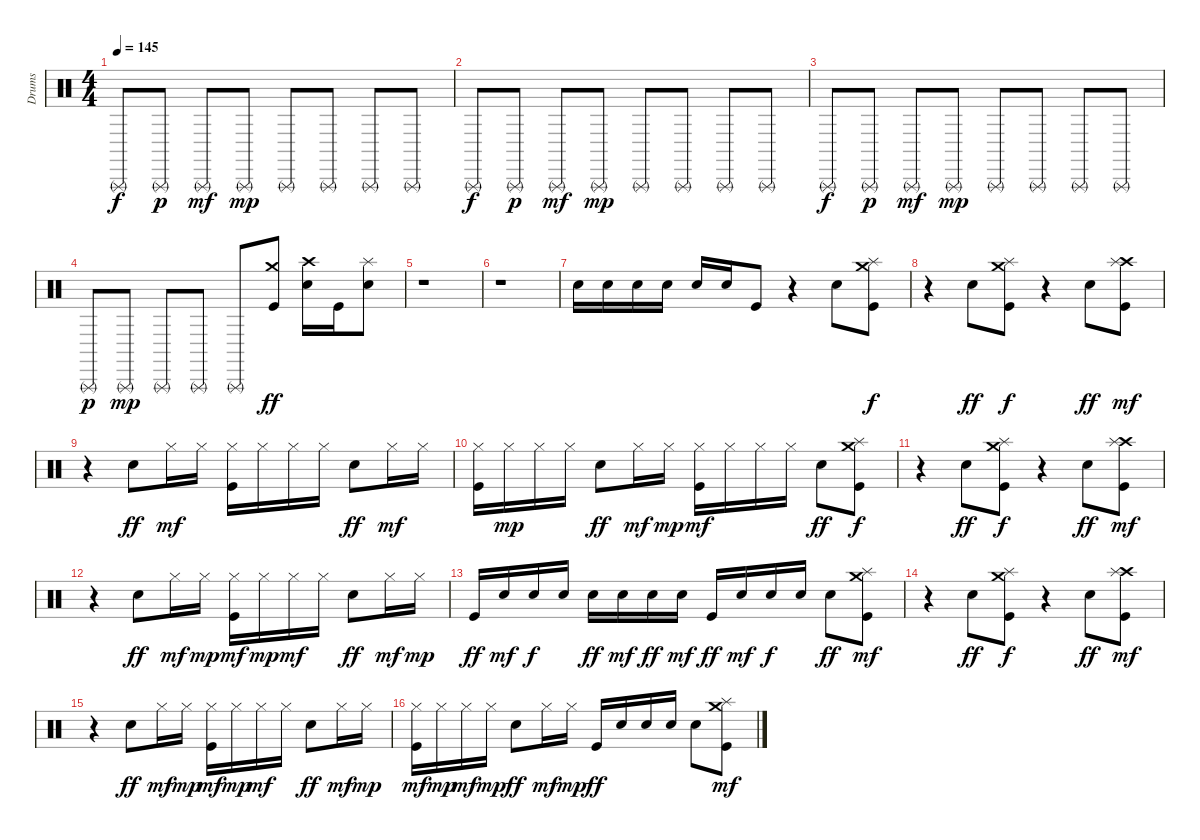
\track ("Drums" "Drums") {instrument percussion}
\staff {score}
\articulation defaults
\ts (4 4)
\tempo 145
\clef neutral
\ks c "Triangle (rnute)".8{dy f} "Triangle (rnute)".8{dy p} "Triangle (rnute)".8{dy mf} "Triangle (rnute)".8{dy mp} "Triangle (rnute)".8 "Triangle (rnute)".8 "Triangle (rnute)".8 "Triangle (rnute)".8
|
"Triangle (rnute)".8{dy f} "Triangle (rnute)".8{dy p} "Triangle (rnute)".8{dy mf} "Triangle (rnute)".8{dy mp} "Triangle (rnute)".8 "Triangle (rnute)".8 "Triangle (rnute)".8 "Triangle (rnute)".8 |
"Triangle (rnute)".8{dy f} "Triangle (rnute)".8{dy p} "Triangle (rnute)".8{dy mf} "Triangle (rnute)".8{dy mp} "Triangle (rnute)".8 "Triangle (rnute)".8 "Triangle (rnute)".8 "Triangle (rnute)".8 |
"Triangle (rnute)".8{dy p} "Triangle (rnute)".8{dy mp} "Triangle (rnute)".8 "Triangle (rnute)".8 "Triangle (rnute)".8 ("Kick (hit)" "Crash medium (hit)").8{dy ff} ("Snare (hit) 2" "Crash high (hit)").16 "Kick (hit)".16 ("Snare (hit) 2" "Splash (hit)").8 |
r.1 |
r.1 |
"Snare (hit) 2".16 "Snare (hit) 2".16 "Snare (hit) 2".16 "Snare (hit) 2".16 "Snare (hit) 2".16 "Snare (hit) 2".16 "Kick (hit)".8 r.4 "Snare (hit) 2".8 ("Kick (hit)" "Splash (hit)" "Crash medium (hit)").8{dy f} |
r.4 "Snare (hit) 2".8{dy ff} ("Kick (hit)" "Splash (hit)" "Crash medium (hit)").8{dy f} r.4 "Snare (hit) 2".8{dy ff} ("Kick (hit)" "Crash high (hit)" "Splash (hit)").8{dy mf} |
r.4 "Snare (hit) 2".8{dy ff} "Hi-Hat (closed)".16{dy mf} "Hi-Hat (closed)".16 ("Kick (hit)" "Hi-Hat (closed)").16 "Hi-Hat (closed)".16 "Hi-Hat (closed)".16 "Hi-Hat (closed)".16 "Snare (hit) 2".8{dy ff} "Hi-Hat (closed)".16{dy mf} "Hi-Hat (closed)".16 |
("Kick (hit)" "Hi-Hat (closed)").16 "Hi-Hat (closed)".16{dy mp} "Hi-Hat (closed)".16 "Hi-Hat (closed)".16 "Snare (hit) 2".8{dy ff} "Hi-Hat (closed)".16{dy mf} "Hi-Hat (closed)".16{dy mp} ("Kick (hit)" "Hi-Hat (closed)").16{dy mf} "Hi-Hat (closed)".16 "Hi-Hat (closed)".16 "Hi-Hat (closed)".16 "Snare (hit) 2".8{dy ff} ("Kick (hit)" "Splash (hit)" "Crash medium (hit)").8{dy f} |
r.4 "Snare (hit) 2".8{dy ff} ("Kick (hit)" "Splash (hit)" "Crash medium (hit)").8{dy f} r.4 "Snare (hit) 2".8{dy ff} ("Kick (hit)" "Crash high (hit)" "Splash (hit)").8{dy mf} |
r.4 "Snare (hit) 2".8{dy ff} "Hi-Hat (closed)".16{dy mf} "Hi-Hat (closed)".16{dy mp} ("Kick (hit)" "Hi-Hat (closed)").16{dy mf} "Hi-Hat (closed)".16{dy mp} "Hi-Hat (closed)".16{dy mf} "Hi-Hat (closed)".16 "Snare (hit) 2".8{dy ff} "Hi-Hat (closed)".16{dy mf} "Hi-Hat (closed)".16{dy mp} |
"Kick (hit)".16{dy ff} "Snare (hit) 2".16{dy mf} "Snare (hit) 2".16{dy f} "Snare (hit) 2".16 "Snare (hit) 2".16{dy ff} "Snare (hit) 2".16{dy mf} "Snare (hit) 2".16{dy ff} "Snare (hit) 2".16{dy mf} "Kick (hit)".16{dy ff} "Snare (hit) 2".16{dy mf} "Snare (hit) 2".16{dy f} "Snare (hit) 2".16 "Snare (hit) 2".8{dy ff} ("Kick (hit)" "Splash (hit)" "Crash medium (hit)").8{dy mf} |
r.4 "Snare (hit) 2".8{dy ff} ("Kick (hit)" "Splash (hit)" "Crash medium (hit)").8{dy f} r.4 "Snare (hit) 2".8{dy ff} ("Kick (hit)" "Crash high (hit)" "Splash (hit)").8{dy mf} |
r.4 "Snare (hit) 2".8{dy ff} "Hi-Hat (closed)".16{dy mf} "Hi-Hat (closed)".16{dy mp} ("Kick (hit)" "Hi-Hat (closed)").16{dy mf} "Hi-Hat (closed)".16{dy mp} "Hi-Hat (closed)".16{dy mf} "Hi-Hat (closed)".16 "Snare (hit) 2".8{dy ff} "Hi-Hat (closed)".16{dy mf} "Hi-Hat (closed)".16{dy mp} |
("Kick (hit)" "Hi-Hat (closed)").16{dy mf} "Hi-Hat (closed)".16{dy mp} "Hi-Hat (closed)".16{dy mf} "Hi-Hat (closed)".16{dy mp} "Snare (hit) 2".8{dy ff} "Hi-Hat (closed)".16{dy mf} "Hi-Hat (closed)".16{dy mp} "Kick (hit)".16{dy ff} "Snare (hit) 2".16 "Snare (hit) 2".16 "Snare (hit) 2".16 "Snare (hit) 2".8 ("Kick (hit)" "Splash (hit)" "Crash medium (hit)").8{dy mf}
